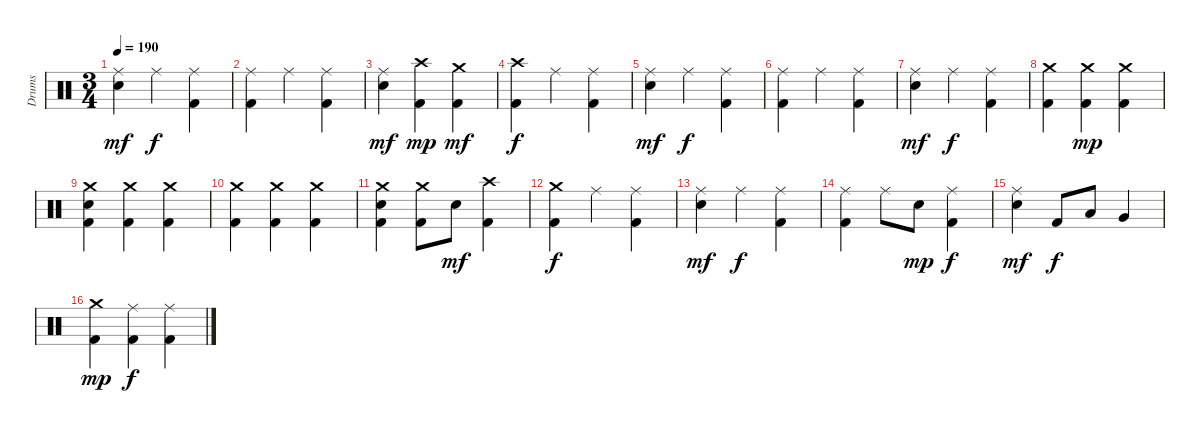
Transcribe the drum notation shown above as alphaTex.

\track ("Drums" "Drums") {instrument percussion}
\staff {score}
\articulation defaults
\ts (3 4)
\tempo 190
\clef neutral
\ks c
("Ride (middle)" "Electric Snare (hit)").4{dy mf} "Ride (middle)".4{dy f} ("Ride (middle)" "Kick (hit) 2").4 |
("Ride (middle)" "Kick (hit) 2").4 "Ride (middle)".4 ("Ride (middle)" "Kick (hit) 2").4 |
("Ride (middle)" "Electric Snare (hit)").4{dy mf} ("Crash high (hit)" "Kick (hit) 2").4{dy mp} ("Crash medium (hit)" "Kick (hit) 2").4{dy mf} |
("Crash high (hit)" "Kick (hit) 2").4{dy f} "Ride (middle)".4 ("Ride (middle)" "Kick (hit) 2").4 |
("Ride (middle)" "Electric Snare (hit)").4{dy mf} "Ride (middle)".4{dy f} ("Ride (middle)" "Kick (hit) 2").4 |
("Ride (middle)" "Kick (hit) 2").4 "Ride (middle)".4 ("Ride (middle)" "Kick (hit) 2").4 |
("Ride (middle)" "Electric Snare (hit)").4{dy mf} "Ride (middle)".4{dy f} ("Ride (middle)" "Kick (hit) 2").4 |
("Crash medium (hit)" "Kick (hit) 2").4 ("Crash medium (hit)" "Kick (hit) 2").4{dy mp} ("Crash medium (hit)" "Kick (hit) 2").4 |
("Crash medium (hit)" "Electric Snare (hit)" "Kick (hit) 2").4 ("Crash medium (hit)" "Kick (hit) 2").4 ("Crash medium (hit)" "Kick (hit) 2").4 |
("Crash medium (hit)" "Kick (hit) 2").4 ("Crash medium (hit)" "Kick (hit) 2").4 ("Crash medium (hit)" "Kick (hit) 2").4 |
("Crash medium (hit)" "Electric Snare (hit)" "Kick (hit) 2").4 ("Crash medium (hit)" "Kick (hit) 2").8 "Electric Snare (hit)".8{dy mf} ("Crash high (hit)" "Kick (hit) 2").4 |
("Crash medium (hit)" "Kick (hit) 2").4{dy f} "Ride (middle)".4 ("Ride (middle)" "Kick (hit) 2").4 |
("Ride (middle)" "Electric Snare (hit)").4{dy mf} "Ride (middle)".4{dy f} ("Ride (middle)" "Kick (hit) 2").4 |
("Ride (middle)" "Kick (hit) 2").4 "Ride (middle)".8 "Electric Snare (hit)".8{dy mp} ("Ride (middle)" "Kick (hit) 2").4{dy f} |
("Ride (middle)" "Electric Snare (hit)").4{dy mf} "Kick (hit) 2".8{dy f} "Low Tom (hit)".8 "Very Low Tom (hit)".4 |
("Crash medium (hit)" "Kick (hit) 2").4{dy mp} ("Ride (middle)" "Kick (hit) 2").4{dy f} ("Ride (middle)" "Kick (hit) 2").4
